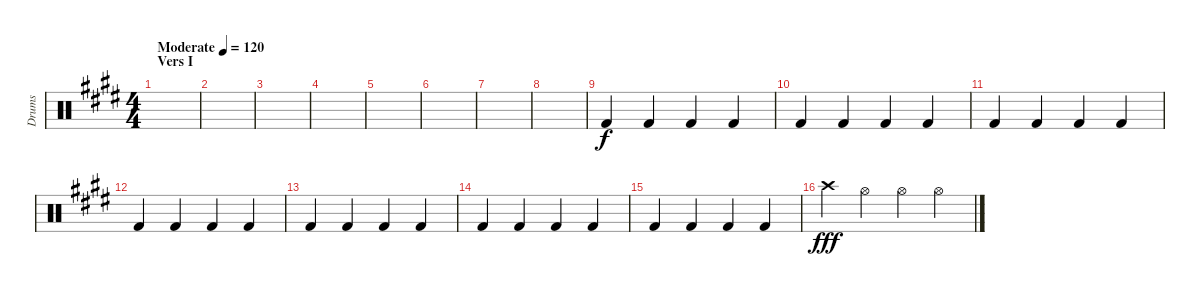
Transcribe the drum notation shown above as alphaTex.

\track ("Drums" "Drums") {instrument percussion}
\staff {score}
\articulation defaults
\ts (4 4)
\section ("" "Vers I")
\tempo (120 "Moderate")
\clef neutral
\ks e
|
|
|
|
|
|
|
|
"Kick (hit) 2".4 "Kick (hit) 2".4 "Kick (hit) 2".4 "Kick (hit) 2".4 |
"Kick (hit) 2".4 "Kick (hit) 2".4 "Kick (hit) 2".4 "Kick (hit) 2".4 |
"Kick (hit) 2".4 "Kick (hit) 2".4 "Kick (hit) 2".4 "Kick (hit) 2".4 |
"Kick (hit) 2".4 "Kick (hit) 2".4 "Kick (hit) 2".4 "Kick (hit) 2".4 |
"Kick (hit) 2".4 "Kick (hit) 2".4 "Kick (hit) 2".4 "Kick (hit) 2".4 |
"Kick (hit) 2".4 "Kick (hit) 2".4 "Kick (hit) 2".4 "Kick (hit) 2".4 |
"Kick (hit) 2".4 "Kick (hit) 2".4 "Kick (hit) 2".4 "Kick (hit) 2".4 |
"Crash high (hit)".4{dy fff} "Hi-Hat (open)".4 "Hi-Hat (open)".4 "Hi-Hat (open)".4
